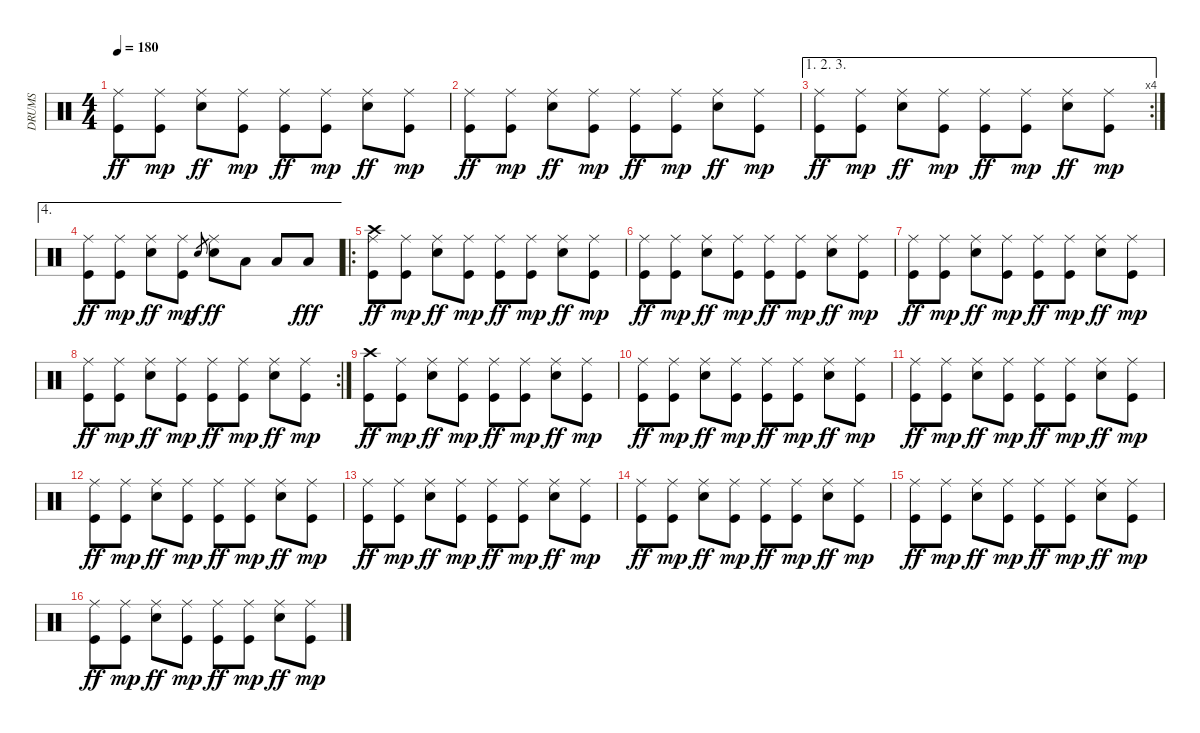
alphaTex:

\track ("DRUMS" "DRUMS") {instrument percussion}
\staff {score}
\articulation defaults
\ts (4 4)
\tempo 180
\clef neutral
\ks c
("Ride (middle)" "Kick (hit)").8{dy ff} ("Ride (middle)" "Kick (hit)").8{dy mp} ("Ride (middle)" "Electric Snare (hit)").8{dy ff} ("Ride (middle)" "Kick (hit)").8{dy mp} ("Ride (middle)" "Kick (hit)").8{dy ff} ("Ride (middle)" "Kick (hit)").8{dy mp} ("Ride (middle)" "Electric Snare (hit)").8{dy ff} ("Ride (middle)" "Kick (hit)").8{dy mp} |
("Ride (middle)" "Kick (hit)").8{dy ff} ("Ride (middle)" "Kick (hit)").8{dy mp} ("Ride (middle)" "Electric Snare (hit)").8{dy ff} ("Ride (middle)" "Kick (hit)").8{dy mp} ("Ride (middle)" "Kick (hit)").8{dy ff} ("Ride (middle)" "Kick (hit)").8{dy mp} ("Ride (middle)" "Electric Snare (hit)").8{dy ff} ("Ride (middle)" "Kick (hit)").8{dy mp} |
\ae (1 2 3)
\rc 4
("Ride (middle)" "Kick (hit)").8{dy ff} ("Ride (middle)" "Kick (hit)").8{dy mp} ("Ride (middle)" "Electric Snare (hit)").8{dy ff} ("Ride (middle)" "Kick (hit)").8{dy mp} ("Ride (middle)" "Kick (hit)").8{dy ff} ("Ride (middle)" "Kick (hit)").8{dy mp} ("Ride (middle)" "Electric Snare (hit)").8{dy ff} ("Ride (middle)" "Kick (hit)").8{dy mp} |
\ae 4
("Ride (middle)" "Kick (hit)").8{dy ff} ("Ride (middle)" "Kick (hit)").8{dy mp} ("Ride (middle)" "Electric Snare (hit)").8{dy ff} ("Ride (middle)" "Kick (hit)").8{dy mp} "Electric Snare (hit)".8{gr dy f} ("Ride (middle)" "Electric Snare (hit)").8{dy ff} "Low Tom (hit)".8 "Low Floor Tom (hit)".8 "Low Floor Tom (hit)".8{dy fff} |
\ro
("Crash high (hit)" "Ride (middle)" "Kick (hit)").8{dy ff} ("Ride (middle)" "Kick (hit)").8{dy mp} ("Ride (middle)" "Electric Snare (hit)").8{dy ff} ("Ride (middle)" "Kick (hit)").8{dy mp} ("Ride (middle)" "Kick (hit)").8{dy ff} ("Ride (middle)" "Kick (hit)").8{dy mp} ("Ride (middle)" "Electric Snare (hit)").8{dy ff} ("Ride (middle)" "Kick (hit)").8{dy mp} |
("Ride (middle)" "Kick (hit)").8{dy ff} ("Ride (middle)" "Kick (hit)").8{dy mp} ("Ride (middle)" "Electric Snare (hit)").8{dy ff} ("Ride (middle)" "Kick (hit)").8{dy mp} ("Ride (middle)" "Kick (hit)").8{dy ff} ("Ride (middle)" "Kick (hit)").8{dy mp} ("Ride (middle)" "Electric Snare (hit)").8{dy ff} ("Ride (middle)" "Kick (hit)").8{dy mp} |
("Ride (middle)" "Kick (hit)").8{dy ff} ("Ride (middle)" "Kick (hit)").8{dy mp} ("Ride (middle)" "Electric Snare (hit)").8{dy ff} ("Ride (middle)" "Kick (hit)").8{dy mp} ("Ride (middle)" "Kick (hit)").8{dy ff} ("Ride (middle)" "Kick (hit)").8{dy mp} ("Ride (middle)" "Electric Snare (hit)").8{dy ff} ("Ride (middle)" "Kick (hit)").8{dy mp} |
\rc 2
("Ride (middle)" "Kick (hit)").8{dy ff} ("Ride (middle)" "Kick (hit)").8{dy mp} ("Ride (middle)" "Electric Snare (hit)").8{dy ff} ("Ride (middle)" "Kick (hit)").8{dy mp} ("Ride (middle)" "Kick (hit)").8{dy ff} ("Ride (middle)" "Kick (hit)").8{dy mp} ("Ride (middle)" "Electric Snare (hit)").8{dy ff} ("Ride (middle)" "Kick (hit)").8{dy mp} |
("Crash high (hit)" "Kick (hit)").8{dy ff} ("Ride (middle)" "Kick (hit)").8{dy mp} ("Ride (middle)" "Electric Snare (hit)").8{dy ff} ("Ride (middle)" "Kick (hit)").8{dy mp} ("Ride (middle)" "Kick (hit)").8{dy ff} ("Ride (middle)" "Kick (hit)").8{dy mp} ("Ride (middle)" "Electric Snare (hit)").8{dy ff} ("Ride (middle)" "Kick (hit)").8{dy mp} |
("Ride (middle)" "Kick (hit)").8{dy ff} ("Ride (middle)" "Kick (hit)").8{dy mp} ("Ride (middle)" "Electric Snare (hit)").8{dy ff} ("Ride (middle)" "Kick (hit)").8{dy mp} ("Ride (middle)" "Kick (hit)").8{dy ff} ("Ride (middle)" "Kick (hit)").8{dy mp} ("Ride (middle)" "Electric Snare (hit)").8{dy ff} ("Ride (middle)" "Kick (hit)").8{dy mp} |
("Ride (middle)" "Kick (hit)").8{dy ff} ("Ride (middle)" "Kick (hit)").8{dy mp} ("Ride (middle)" "Electric Snare (hit)").8{dy ff} ("Ride (middle)" "Kick (hit)").8{dy mp} ("Ride (middle)" "Kick (hit)").8{dy ff} ("Ride (middle)" "Kick (hit)").8{dy mp} ("Ride (middle)" "Electric Snare (hit)").8{dy ff} ("Ride (middle)" "Kick (hit)").8{dy mp} |
("Ride (middle)" "Kick (hit)").8{dy ff} ("Ride (middle)" "Kick (hit)").8{dy mp} ("Ride (middle)" "Electric Snare (hit)").8{dy ff} ("Ride (middle)" "Kick (hit)").8{dy mp} ("Ride (middle)" "Kick (hit)").8{dy ff} ("Ride (middle)" "Kick (hit)").8{dy mp} ("Ride (middle)" "Electric Snare (hit)").8{dy ff} ("Ride (middle)" "Kick (hit)").8{dy mp} |
("Ride (middle)" "Kick (hit)").8{dy ff} ("Ride (middle)" "Kick (hit)").8{dy mp} ("Ride (middle)" "Electric Snare (hit)").8{dy ff} ("Ride (middle)" "Kick (hit)").8{dy mp} ("Ride (middle)" "Kick (hit)").8{dy ff} ("Ride (middle)" "Kick (hit)").8{dy mp} ("Ride (middle)" "Electric Snare (hit)").8{dy ff} ("Ride (middle)" "Kick (hit)").8{dy mp} |
("Ride (middle)" "Kick (hit)").8{dy ff} ("Ride (middle)" "Kick (hit)").8{dy mp} ("Ride (middle)" "Electric Snare (hit)").8{dy ff} ("Ride (middle)" "Kick (hit)").8{dy mp} ("Ride (middle)" "Kick (hit)").8{dy ff} ("Ride (middle)" "Kick (hit)").8{dy mp} ("Ride (middle)" "Electric Snare (hit)").8{dy ff} ("Ride (middle)" "Kick (hit)").8{dy mp} |
("Ride (middle)" "Kick (hit)").8{dy ff} ("Ride (middle)" "Kick (hit)").8{dy mp} ("Ride (middle)" "Electric Snare (hit)").8{dy ff} ("Ride (middle)" "Kick (hit)").8{dy mp} ("Ride (middle)" "Kick (hit)").8{dy ff} ("Ride (middle)" "Kick (hit)").8{dy mp} ("Ride (middle)" "Electric Snare (hit)").8{dy ff} ("Ride (middle)" "Kick (hit)").8{dy mp} |
("Ride (middle)" "Kick (hit)").8{dy ff} ("Ride (middle)" "Kick (hit)").8{dy mp} ("Ride (middle)" "Electric Snare (hit)").8{dy ff} ("Ride (middle)" "Kick (hit)").8{dy mp} ("Ride (middle)" "Kick (hit)").8{dy ff} ("Ride (middle)" "Kick (hit)").8{dy mp} ("Ride (middle)" "Electric Snare (hit)").8{dy ff} ("Ride (middle)" "Kick (hit)").8{dy mp}
